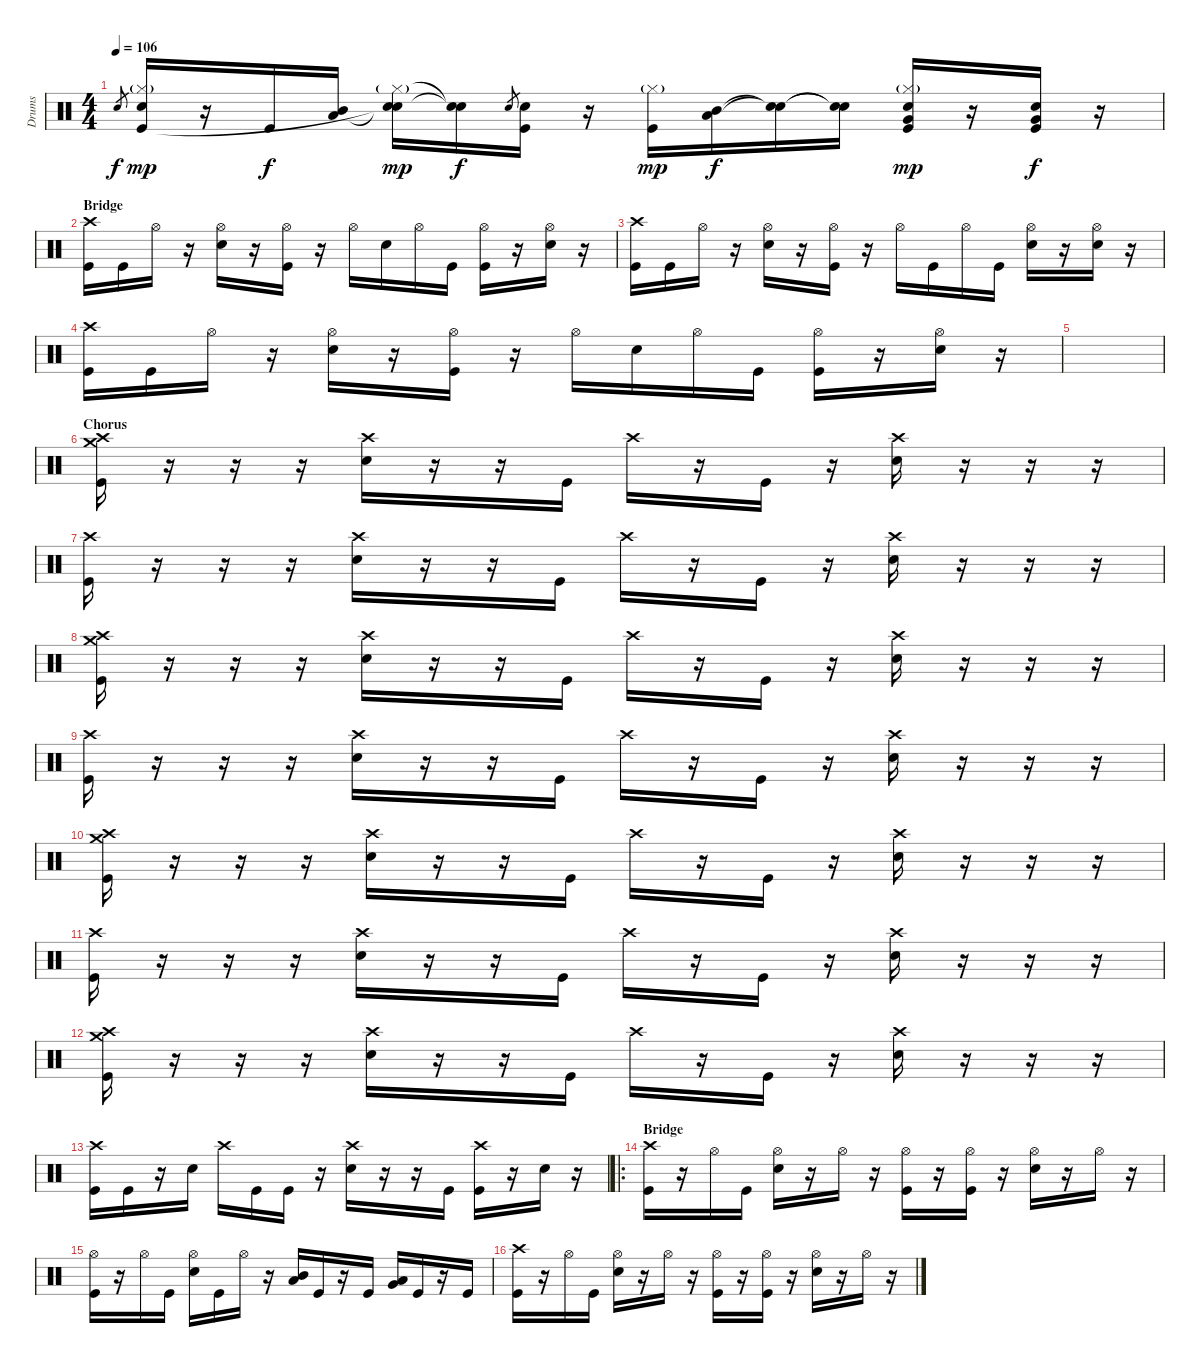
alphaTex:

\track ("Drums" "Drums") {instrument percussion}
\staff {score}
\articulation defaults
\ts (4 4)
\tempo 106
\clef neutral
\ks c "Electric Snare (hit)".8{gr dy f}
("Hi-Hat (closed)"{g} "Electric Snare (hit)" "Kick (hit)").16{dy mp} r.16 "Kick (hit)".16{dy f} ("Mid Tom (hit)" "Low Tom (hit)").16 ("Hi-Hat (closed)"{g} "Snare (hit)"{t} "Snare (hit)"{t}).16{dy mp} ("Snare (hit)"{t} "Snare (hit)"{t}).16{dy f} "Electric Snare (hit)".8{gr} ("Electric Snare (hit)" "Kick (hit)").16 r.16 ("Hi-Hat (closed)"{g} "Kick (hit)").16{dy mp} ("Mid Tom (hit)" "Low Tom (hit)").16{dy f} ("Snare (hit)"{t} "Snare (hit)"{t}).16 ("Snare (hit)"{t} "Snare (hit)"{t}).16 ("Hi-Hat (closed)"{g} "Electric Snare (hit)" "Very Low Tom (hit)" "Kick (hit)").16{dy mp} r.16 ("Electric Snare (hit)" "Very Low Tom (hit)" "Kick (hit)").16{dy f} r.16 |
\section ("" "Bridge")
("Crash high (hit)" "Kick (hit)").16 "Kick (hit)".16 "Hi-Hat (open)".16 r.16 ("Hi-Hat (open)" "Electric Snare (hit)").16 r.16 ("Hi-Hat (open)" "Kick (hit)").16 r.16 "Hi-Hat (open)".16 "Electric Snare (hit)".16 "Hi-Hat (open)".16 "Kick (hit)".16 ("Hi-Hat (open)" "Kick (hit)").16 r.16 ("Hi-Hat (open)" "Electric Snare (hit)").16 r.16 |
("Crash high (hit)" "Kick (hit)").16 "Kick (hit)".16 "Hi-Hat (open)".16 r.16 ("Hi-Hat (open)" "Electric Snare (hit)").16 r.16 ("Hi-Hat (open)" "Kick (hit)").16 r.16 "Hi-Hat (open)".16 "Kick (hit)".16 "Hi-Hat (open)".16 "Kick (hit)".16 ("Hi-Hat (open)" "Electric Snare (hit)").16 r.16 ("Hi-Hat (open)" "Electric Snare (hit)").16 r.16 |
("Crash high (hit)" "Kick (hit)").16 "Kick (hit)".16 "Hi-Hat (open)".16 r.16 ("Hi-Hat (open)" "Electric Snare (hit)").16 r.16 ("Hi-Hat (open)" "Kick (hit)").16 r.16 "Hi-Hat (open)".16 "Electric Snare (hit)".16 "Hi-Hat (open)".16 "Kick (hit)".16 ("Hi-Hat (open)" "Kick (hit)").16 r.16 ("Hi-Hat (open)" "Electric Snare (hit)").16 r.16 |
|
\section ("" "Chorus")
("Crash high (hit)" "Crash medium (hit)" "Kick (hit)").16 r.16 r.16 r.16 ("Crash high (hit)" "Electric Snare (hit)").16 r.16 r.16 "Kick (hit)".16 "Crash high (hit)".16 r.16 "Kick (hit)".16 r.16 ("Crash high (hit)" "Electric Snare (hit)").16 r.16 r.16 r.16 |
("Crash high (hit)" "Kick (hit)").16 r.16 r.16 r.16 ("Crash high (hit)" "Electric Snare (hit)").16 r.16 r.16 "Kick (hit)".16 "Crash high (hit)".16 r.16 "Kick (hit)".16 r.16 ("Crash high (hit)" "Electric Snare (hit)").16 r.16 r.16 r.16 |
("Crash high (hit)" "Crash medium (hit)" "Kick (hit)").16 r.16 r.16 r.16 ("Crash high (hit)" "Electric Snare (hit)").16 r.16 r.16 "Kick (hit)".16 "Crash high (hit)".16 r.16 "Kick (hit)".16 r.16 ("Crash high (hit)" "Electric Snare (hit)").16 r.16 r.16 r.16 |
("Crash high (hit)" "Kick (hit)").16 r.16 r.16 r.16 ("Crash high (hit)" "Electric Snare (hit)").16 r.16 r.16 "Kick (hit)".16 "Crash high (hit)".16 r.16 "Kick (hit)".16 r.16 ("Crash high (hit)" "Electric Snare (hit)").16 r.16 r.16 r.16 |
("Crash high (hit)" "Crash medium (hit)" "Kick (hit)").16 r.16 r.16 r.16 ("Crash high (hit)" "Electric Snare (hit)").16 r.16 r.16 "Kick (hit)".16 "Crash high (hit)".16 r.16 "Kick (hit)".16 r.16 ("Crash high (hit)" "Electric Snare (hit)").16 r.16 r.16 r.16 |
("Crash high (hit)" "Kick (hit)").16 r.16 r.16 r.16 ("Crash high (hit)" "Electric Snare (hit)").16 r.16 r.16 "Kick (hit)".16 "Crash high (hit)".16 r.16 "Kick (hit)".16 r.16 ("Crash high (hit)" "Electric Snare (hit)").16 r.16 r.16 r.16 |
("Crash high (hit)" "Crash medium (hit)" "Kick (hit)").16 r.16 r.16 r.16 ("Crash high (hit)" "Electric Snare (hit)").16 r.16 r.16 "Kick (hit)".16 "Crash high (hit)".16 r.16 "Kick (hit)".16 r.16 ("Crash high (hit)" "Electric Snare (hit)").16 r.16 r.16 r.16 |
("Crash high (hit)" "Kick (hit)").16 "Kick (hit)".16 r.16 "Electric Snare (hit)".16 "Crash high (hit)".16 "Kick (hit)".16 "Kick (hit)".16 r.16 ("Crash high (hit)" "Electric Snare (hit)").16 r.16 r.16 "Kick (hit)".16 ("Crash high (hit)" "Kick (hit)").16 r.16 "Electric Snare (hit)".16 r.16 |
\ro
\section ("" "Bridge")
("Crash high (hit)" "Kick (hit)").16 r.16 "Hi-Hat (open)".16 "Kick (hit)".16 ("Hi-Hat (open)" "Electric Snare (hit)").16 r.16 "Hi-Hat (open)".16 r.16 ("Hi-Hat (open)" "Kick (hit)").16 r.16 ("Hi-Hat (open)" "Kick (hit)").16 r.16 ("Hi-Hat (open)" "Electric Snare (hit)").16 r.16 "Hi-Hat (open)".16 r.16 |
("Hi-Hat (open)" "Kick (hit)").16 r.16 "Hi-Hat (open)".16 "Kick (hit)".16 ("Hi-Hat (open)" "Electric Snare (hit)").16 "Kick (hit)".16 "Hi-Hat (open)".16 r.16 ("Mid Tom (hit)" "Low Tom (hit)").16 "Kick (hit)".16 r.16 "Kick (hit)".16 ("Low Tom (hit)" "Very Low Tom (hit)").16 "Kick (hit)".16 r.16 "Kick (hit)".16 |
("Crash high (hit)" "Kick (hit)").16 r.16 "Hi-Hat (open)".16 "Kick (hit)".16 ("Hi-Hat (open)" "Electric Snare (hit)").16 r.16 "Hi-Hat (open)".16 r.16 ("Hi-Hat (open)" "Kick (hit)").16 r.16 ("Hi-Hat (open)" "Kick (hit)").16 r.16 ("Hi-Hat (open)" "Electric Snare (hit)").16 r.16 "Hi-Hat (open)".16 r.16
